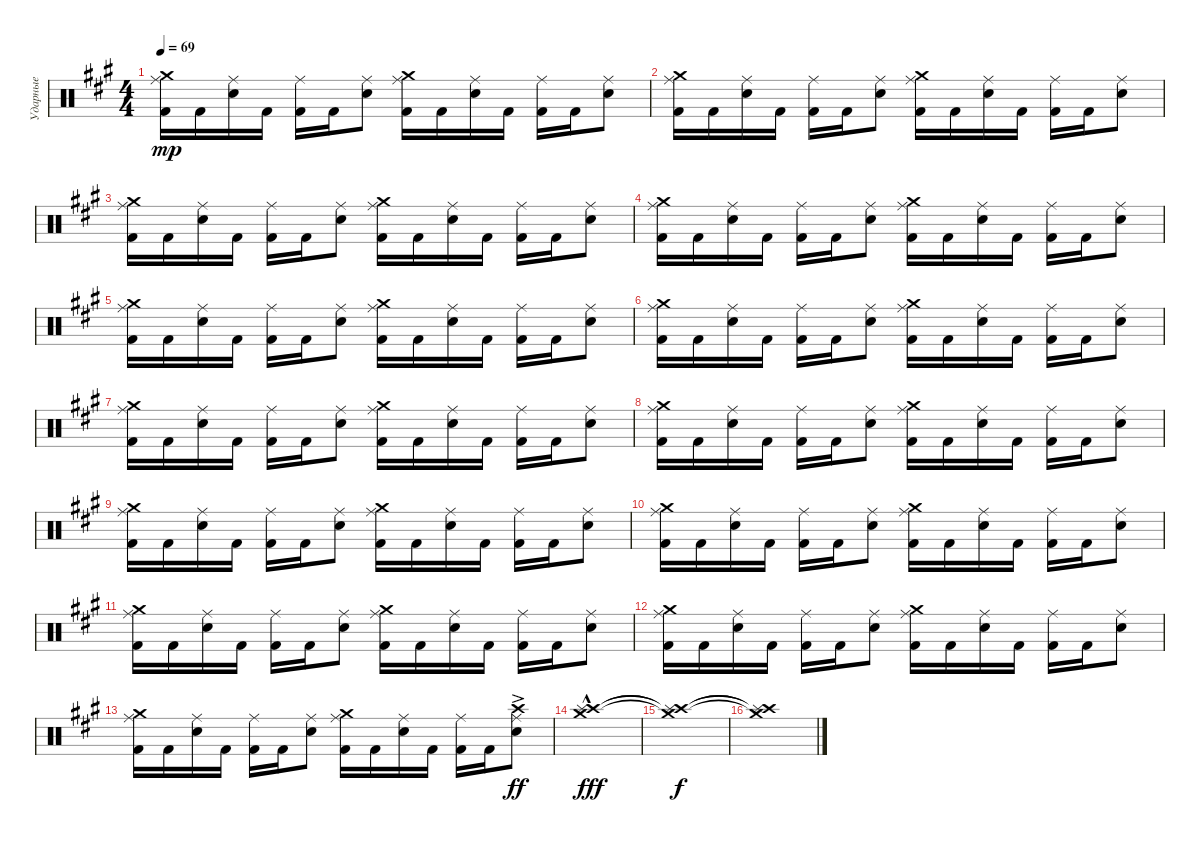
\track ("Ударные" "Ударные") {instrument percussion}
\staff {score}
\articulation defaults
\ts (4 4)
\tempo 69
\clef neutral
\ks a
("Kick (hit) 2" "Ride (middle)" "Crash medium (hit)").16{dy mp} "Kick (hit) 2".16 ("Electric Snare (hit)" "Ride (middle)").16 "Kick (hit) 2".16 ("Kick (hit) 2" "Ride (middle)").16 "Kick (hit) 2".16 ("Electric Snare (hit)" "Ride (middle)").8 ("Kick (hit) 2" "Ride (middle)" "Crash medium (hit)").16 "Kick (hit) 2".16 ("Electric Snare (hit)" "Ride (middle)").16 "Kick (hit) 2".16 ("Kick (hit) 2" "Ride (middle)").16 "Kick (hit) 2".16 ("Electric Snare (hit)" "Ride (middle)").8 |
("Kick (hit) 2" "Ride (middle)" "Crash medium (hit)").16 "Kick (hit) 2".16 ("Electric Snare (hit)" "Ride (middle)").16 "Kick (hit) 2".16 ("Kick (hit) 2" "Ride (middle)").16 "Kick (hit) 2".16 ("Electric Snare (hit)" "Ride (middle)").8 ("Kick (hit) 2" "Ride (middle)" "Crash medium (hit)").16 "Kick (hit) 2".16 ("Electric Snare (hit)" "Ride (middle)").16 "Kick (hit) 2".16 ("Kick (hit) 2" "Ride (middle)").16 "Kick (hit) 2".16 ("Electric Snare (hit)" "Ride (middle)").8 |
("Kick (hit) 2" "Ride (middle)" "Crash medium (hit)").16 "Kick (hit) 2".16 ("Electric Snare (hit)" "Ride (middle)").16 "Kick (hit) 2".16 ("Kick (hit) 2" "Ride (middle)").16 "Kick (hit) 2".16 ("Electric Snare (hit)" "Ride (middle)").8 ("Kick (hit) 2" "Ride (middle)" "Crash medium (hit)").16 "Kick (hit) 2".16 ("Electric Snare (hit)" "Ride (middle)").16 "Kick (hit) 2".16 ("Kick (hit) 2" "Ride (middle)").16 "Kick (hit) 2".16 ("Electric Snare (hit)" "Ride (middle)").8 |
("Kick (hit) 2" "Ride (middle)" "Crash medium (hit)").16 "Kick (hit) 2".16 ("Electric Snare (hit)" "Ride (middle)").16 "Kick (hit) 2".16 ("Kick (hit) 2" "Ride (middle)").16 "Kick (hit) 2".16 ("Electric Snare (hit)" "Ride (middle)").8 ("Kick (hit) 2" "Ride (middle)" "Crash medium (hit)").16 "Kick (hit) 2".16 ("Electric Snare (hit)" "Ride (middle)").16 "Kick (hit) 2".16 ("Kick (hit) 2" "Ride (middle)").16 "Kick (hit) 2".16 ("Electric Snare (hit)" "Ride (middle)").8 |
("Kick (hit) 2" "Ride (middle)" "Crash medium (hit)").16 "Kick (hit) 2".16 ("Electric Snare (hit)" "Ride (middle)").16 "Kick (hit) 2".16 ("Kick (hit) 2" "Ride (middle)").16 "Kick (hit) 2".16 ("Electric Snare (hit)" "Ride (middle)").8 ("Kick (hit) 2" "Ride (middle)" "Crash medium (hit)").16 "Kick (hit) 2".16 ("Electric Snare (hit)" "Ride (middle)").16 "Kick (hit) 2".16 ("Kick (hit) 2" "Ride (middle)").16 "Kick (hit) 2".16 ("Electric Snare (hit)" "Ride (middle)").8 |
("Kick (hit) 2" "Ride (middle)" "Crash medium (hit)").16 "Kick (hit) 2".16 ("Electric Snare (hit)" "Ride (middle)").16 "Kick (hit) 2".16 ("Kick (hit) 2" "Ride (middle)").16 "Kick (hit) 2".16 ("Electric Snare (hit)" "Ride (middle)").8 ("Kick (hit) 2" "Ride (middle)" "Crash medium (hit)").16 "Kick (hit) 2".16 ("Electric Snare (hit)" "Ride (middle)").16 "Kick (hit) 2".16 ("Kick (hit) 2" "Ride (middle)").16 "Kick (hit) 2".16 ("Electric Snare (hit)" "Ride (middle)").8 |
("Kick (hit) 2" "Ride (middle)" "Crash medium (hit)").16 "Kick (hit) 2".16 ("Electric Snare (hit)" "Ride (middle)").16 "Kick (hit) 2".16 ("Kick (hit) 2" "Ride (middle)").16 "Kick (hit) 2".16 ("Electric Snare (hit)" "Ride (middle)").8 ("Kick (hit) 2" "Ride (middle)" "Crash medium (hit)").16 "Kick (hit) 2".16 ("Electric Snare (hit)" "Ride (middle)").16 "Kick (hit) 2".16 ("Kick (hit) 2" "Ride (middle)").16 "Kick (hit) 2".16 ("Electric Snare (hit)" "Ride (middle)").8 |
("Kick (hit) 2" "Ride (middle)" "Crash medium (hit)").16 "Kick (hit) 2".16 ("Electric Snare (hit)" "Ride (middle)").16 "Kick (hit) 2".16 ("Kick (hit) 2" "Ride (middle)").16 "Kick (hit) 2".16 ("Electric Snare (hit)" "Ride (middle)").8 ("Kick (hit) 2" "Ride (middle)" "Crash medium (hit)").16 "Kick (hit) 2".16 ("Electric Snare (hit)" "Ride (middle)").16 "Kick (hit) 2".16 ("Kick (hit) 2" "Ride (middle)").16 "Kick (hit) 2".16 ("Electric Snare (hit)" "Ride (middle)").8 |
("Kick (hit) 2" "Ride (middle)" "Crash medium (hit)").16 "Kick (hit) 2".16 ("Electric Snare (hit)" "Ride (middle)").16 "Kick (hit) 2".16 ("Kick (hit) 2" "Ride (middle)").16 "Kick (hit) 2".16 ("Electric Snare (hit)" "Ride (middle)").8 ("Kick (hit) 2" "Ride (middle)" "Crash medium (hit)").16 "Kick (hit) 2".16 ("Electric Snare (hit)" "Ride (middle)").16 "Kick (hit) 2".16 ("Kick (hit) 2" "Ride (middle)").16 "Kick (hit) 2".16 ("Electric Snare (hit)" "Ride (middle)").8 |
("Kick (hit) 2" "Ride (middle)" "Crash medium (hit)").16 "Kick (hit) 2".16 ("Electric Snare (hit)" "Ride (middle)").16 "Kick (hit) 2".16 ("Kick (hit) 2" "Ride (middle)").16 "Kick (hit) 2".16 ("Electric Snare (hit)" "Ride (middle)").8 ("Kick (hit) 2" "Ride (middle)" "Crash medium (hit)").16 "Kick (hit) 2".16 ("Electric Snare (hit)" "Ride (middle)").16 "Kick (hit) 2".16 ("Kick (hit) 2" "Ride (middle)").16 "Kick (hit) 2".16 ("Electric Snare (hit)" "Ride (middle)").8 |
("Kick (hit) 2" "Ride (middle)" "Crash medium (hit)").16 "Kick (hit) 2".16 ("Electric Snare (hit)" "Ride (middle)").16 "Kick (hit) 2".16 ("Kick (hit) 2" "Ride (middle)").16 "Kick (hit) 2".16 ("Electric Snare (hit)" "Ride (middle)").8 ("Kick (hit) 2" "Ride (middle)" "Crash medium (hit)").16 "Kick (hit) 2".16 ("Electric Snare (hit)" "Ride (middle)").16 "Kick (hit) 2".16 ("Kick (hit) 2" "Ride (middle)").16 "Kick (hit) 2".16 ("Electric Snare (hit)" "Ride (middle)").8 |
("Kick (hit) 2" "Ride (middle)" "Crash medium (hit)").16 "Kick (hit) 2".16 ("Electric Snare (hit)" "Ride (middle)").16 "Kick (hit) 2".16 ("Kick (hit) 2" "Ride (middle)").16 "Kick (hit) 2".16 ("Electric Snare (hit)" "Ride (middle)").8 ("Kick (hit) 2" "Ride (middle)" "Crash medium (hit)").16 "Kick (hit) 2".16 ("Electric Snare (hit)" "Ride (middle)").16 "Kick (hit) 2".16 ("Kick (hit) 2" "Ride (middle)").16 "Kick (hit) 2".16 ("Electric Snare (hit)" "Ride (middle)").8 |
("Kick (hit) 2" "Ride (middle)" "Crash medium (hit)").16 "Kick (hit) 2".16 ("Electric Snare (hit)" "Ride (middle)").16 "Kick (hit) 2".16 ("Kick (hit) 2" "Ride (middle)").16 "Kick (hit) 2".16 ("Electric Snare (hit)" "Ride (middle)").8 ("Kick (hit) 2" "Ride (middle)" "Crash medium (hit)").16 "Kick (hit) 2".16 ("Electric Snare (hit)" "Ride (middle)").16 "Kick (hit) 2".16 ("Kick (hit) 2" "Ride (middle)").16 "Kick (hit) 2".16 ("Electric Snare (hit)" "Ride (middle)" "Crash high (hit)"{ac}).8{dy ff} |
("Crash high (hit)"{hac} "Crash medium (hit)"{hac} "Splash (hit)"{hac}).1{dy fff} |
("Crash high (hit)"{t} "Crash medium (hit)"{t} "Splash (hit)"{t}).1{dy f} |
("Crash high (hit)"{t} "Crash medium (hit)"{t} "Splash (hit)"{t}).1
